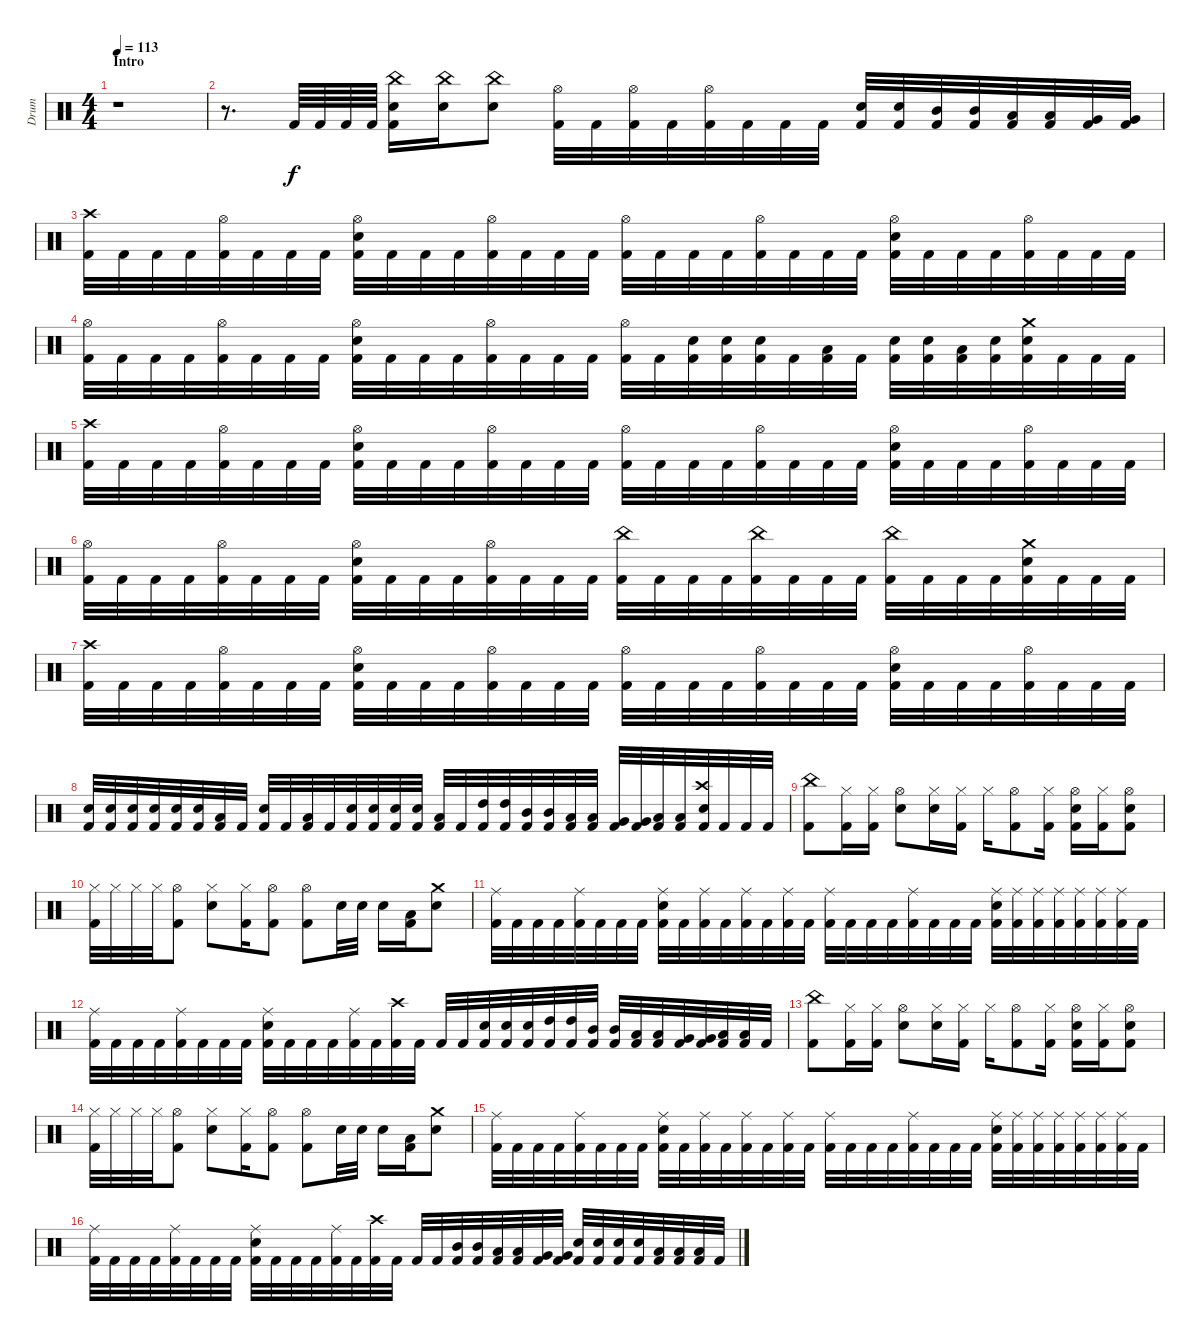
\track ("Drum" "Drum") {instrument percussion}
\staff {score}
\articulation defaults
\ts (4 4)
\section ("" "Intro")
\tempo 113
\clef neutral
\ks c
r.1{dy f} |
r.8{d} "Kick (hit) 2".64 "Kick (hit) 2".64 "Kick (hit) 2".64 "Kick (hit) 2".64 ("China (hit)" "Electric Snare (hit)" "Kick (hit) 2").16 ("China (hit)" "Electric Snare (hit)").16 ("China (hit)" "Electric Snare (hit)").8 ("Hi-Hat (open)" "Kick (hit) 2").32 "Kick (hit) 2".32 ("Hi-Hat (open)" "Kick (hit) 2").32 "Kick (hit) 2".32 ("Hi-Hat (open)" "Kick (hit) 2").32 "Kick (hit) 2".32 "Kick (hit) 2".32 "Kick (hit) 2".32 ("Electric Snare (hit)" "Kick (hit) 2").32 ("Electric Snare (hit)" "Kick (hit) 2").32 ("Mid Tom (hit)" "Kick (hit) 2").32 ("Mid Tom (hit)" "Kick (hit) 2").32 ("Low Tom (hit)" "Kick (hit) 2").32 ("Low Tom (hit)" "Kick (hit) 2").32 ("Very Low Tom (hit)" "Kick (hit) 2").32 ("Very Low Tom (hit)" "Kick (hit) 2").32 |
("Crash high (hit)" "Kick (hit) 2").32 "Kick (hit) 2".32 "Kick (hit) 2".32 "Kick (hit) 2".32 ("Hi-Hat (open)" "Kick (hit) 2").32 "Kick (hit) 2".32 "Kick (hit) 2".32 "Kick (hit) 2".32 ("Hi-Hat (open)" "Electric Snare (hit)" "Kick (hit) 2").32 "Kick (hit) 2".32 "Kick (hit) 2".32 "Kick (hit) 2".32 ("Hi-Hat (open)" "Kick (hit) 2").32 "Kick (hit) 2".32 "Kick (hit) 2".32 "Kick (hit) 2".32 ("Hi-Hat (open)" "Kick (hit) 2").32 "Kick (hit) 2".32 "Kick (hit) 2".32 "Kick (hit) 2".32 ("Hi-Hat (open)" "Kick (hit) 2").32 "Kick (hit) 2".32 "Kick (hit) 2".32 "Kick (hit) 2".32 ("Hi-Hat (open)" "Electric Snare (hit)" "Kick (hit) 2").32 "Kick (hit) 2".32 "Kick (hit) 2".32 "Kick (hit) 2".32 ("Hi-Hat (open)" "Kick (hit) 2").32 "Kick (hit) 2".32 "Kick (hit) 2".32 "Kick (hit) 2".32 |
("Hi-Hat (open)" "Kick (hit) 2").32 "Kick (hit) 2".32 "Kick (hit) 2".32 "Kick (hit) 2".32 ("Hi-Hat (open)" "Kick (hit) 2").32 "Kick (hit) 2".32 "Kick (hit) 2".32 "Kick (hit) 2".32 ("Hi-Hat (open)" "Electric Snare (hit)" "Kick (hit) 2").32 "Kick (hit) 2".32 "Kick (hit) 2".32 "Kick (hit) 2".32 ("Hi-Hat (open)" "Kick (hit) 2").32 "Kick (hit) 2".32 "Kick (hit) 2".32 "Kick (hit) 2".32 ("Hi-Hat (open)" "Kick (hit) 2").32 "Kick (hit) 2".32 ("Electric Snare (hit)" "Kick (hit) 2").32 ("Electric Snare (hit)" "Kick (hit) 2").32 ("Electric Snare (hit)" "Kick (hit) 2").32 "Kick (hit) 2".32 ("Low Tom (hit)" "Kick (hit) 2").32 "Kick (hit) 2".32 ("Electric Snare (hit)" "Kick (hit) 2").32 ("Electric Snare (hit)" "Kick (hit) 2").32 ("Low Tom (hit)" "Kick (hit) 2").32 ("Electric Snare (hit)" "Kick (hit) 2").32 ("Crash medium (hit)" "Electric Snare (hit)" "Kick (hit) 2").32 "Kick (hit) 2".32 "Kick (hit) 2".32 "Kick (hit) 2".32 |
("Crash high (hit)" "Kick (hit) 2").32 "Kick (hit) 2".32 "Kick (hit) 2".32 "Kick (hit) 2".32 ("Hi-Hat (open)" "Kick (hit) 2").32 "Kick (hit) 2".32 "Kick (hit) 2".32 "Kick (hit) 2".32 ("Hi-Hat (open)" "Electric Snare (hit)" "Kick (hit) 2").32 "Kick (hit) 2".32 "Kick (hit) 2".32 "Kick (hit) 2".32 ("Hi-Hat (open)" "Kick (hit) 2").32 "Kick (hit) 2".32 "Kick (hit) 2".32 "Kick (hit) 2".32 ("Hi-Hat (open)" "Kick (hit) 2").32 "Kick (hit) 2".32 "Kick (hit) 2".32 "Kick (hit) 2".32 ("Hi-Hat (open)" "Kick (hit) 2").32 "Kick (hit) 2".32 "Kick (hit) 2".32 "Kick (hit) 2".32 ("Hi-Hat (open)" "Electric Snare (hit)" "Kick (hit) 2").32 "Kick (hit) 2".32 "Kick (hit) 2".32 "Kick (hit) 2".32 ("Hi-Hat (open)" "Kick (hit) 2").32 "Kick (hit) 2".32 "Kick (hit) 2".32 "Kick (hit) 2".32 |
("Hi-Hat (open)" "Kick (hit) 2").32 "Kick (hit) 2".32 "Kick (hit) 2".32 "Kick (hit) 2".32 ("Hi-Hat (open)" "Kick (hit) 2").32 "Kick (hit) 2".32 "Kick (hit) 2".32 "Kick (hit) 2".32 ("Hi-Hat (open)" "Electric Snare (hit)" "Kick (hit) 2").32 "Kick (hit) 2".32 "Kick (hit) 2".32 "Kick (hit) 2".32 ("Hi-Hat (open)" "Kick (hit) 2").32 "Kick (hit) 2".32 "Kick (hit) 2".32 "Kick (hit) 2".32 ("China (hit)" "Kick (hit) 2").32 "Kick (hit) 2".32 "Kick (hit) 2".32 "Kick (hit) 2".32 ("China (hit)" "Kick (hit) 2").32 "Kick (hit) 2".32 "Kick (hit) 2".32 "Kick (hit) 2".32 ("China (hit)" "Kick (hit) 2").32 "Kick (hit) 2".32 "Kick (hit) 2".32 "Kick (hit) 2".32 ("Crash medium (hit)" "Electric Snare (hit)" "Kick (hit) 2").32 "Kick (hit) 2".32 "Kick (hit) 2".32 "Kick (hit) 2".32 |
("Crash high (hit)" "Kick (hit) 2").32 "Kick (hit) 2".32 "Kick (hit) 2".32 "Kick (hit) 2".32 ("Hi-Hat (open)" "Kick (hit) 2").32 "Kick (hit) 2".32 "Kick (hit) 2".32 "Kick (hit) 2".32 ("Hi-Hat (open)" "Electric Snare (hit)" "Kick (hit) 2").32 "Kick (hit) 2".32 "Kick (hit) 2".32 "Kick (hit) 2".32 ("Hi-Hat (open)" "Kick (hit) 2").32 "Kick (hit) 2".32 "Kick (hit) 2".32 "Kick (hit) 2".32 ("Hi-Hat (open)" "Kick (hit) 2").32 "Kick (hit) 2".32 "Kick (hit) 2".32 "Kick (hit) 2".32 ("Hi-Hat (open)" "Kick (hit) 2").32 "Kick (hit) 2".32 "Kick (hit) 2".32 "Kick (hit) 2".32 ("Hi-Hat (open)" "Electric Snare (hit)" "Kick (hit) 2").32 "Kick (hit) 2".32 "Kick (hit) 2".32 "Kick (hit) 2".32 ("Hi-Hat (open)" "Kick (hit) 2").32 "Kick (hit) 2".32 "Kick (hit) 2".32 "Kick (hit) 2".32 |
("Electric Snare (hit)" "Kick (hit) 2").32 ("Electric Snare (hit)" "Kick (hit) 2").32 ("Electric Snare (hit)" "Kick (hit) 2").32 ("Electric Snare (hit)" "Kick (hit) 2").32 ("Electric Snare (hit)" "Kick (hit) 2").32 ("Electric Snare (hit)" "Kick (hit) 2").32 ("Low Tom (hit)" "Kick (hit) 2").32 "Kick (hit) 2".32 ("Electric Snare (hit)" "Kick (hit) 2").32 "Kick (hit) 2".32 ("Low Tom (hit)" "Kick (hit) 2").32 "Kick (hit) 2".32 ("Electric Snare (hit)" "Kick (hit) 2").32 ("Electric Snare (hit)" "Kick (hit) 2").32 ("Electric Snare (hit)" "Kick (hit) 2").32 ("Electric Snare (hit)" "Kick (hit) 2").32 ("Low Tom (hit)" "Kick (hit) 2").32 "Kick (hit) 2".32 ("High Tom (hit)" "Kick (hit) 2").32 ("High Tom (hit)" "Kick (hit) 2").32 ("Mid Tom (hit)" "Kick (hit) 2").32 ("Mid Tom (hit)" "Kick (hit) 2").32 ("Low Tom (hit)" "Kick (hit) 2").32 ("Low Tom (hit)" "Kick (hit) 2").32 ("Very Low Tom (hit)" "Kick (hit) 2").32 ("Very Low Tom (hit)" "Kick (hit) 2").32 ("Low Floor Tom (hit)" "Kick (hit) 2").32 ("Low Floor Tom (hit)" "Kick (hit) 2").32 ("Crash high (hit)" "Snare (hit) 2" "Kick (hit) 2").32 "Kick (hit) 2".32 "Kick (hit) 2".32 "Kick (hit) 2".32 |
("China (hit)" "Kick (hit) 2").8 ("Hi-Hat (closed)" "Kick (hit) 2").16 ("Hi-Hat (closed)" "Kick (hit) 2").16 ("Hi-Hat (open)" "Electric Snare (hit)").8 ("Hi-Hat (closed)" "Electric Snare (hit)").16 ("Hi-Hat (closed)" "Kick (hit) 2").16 "Hi-Hat (closed)".16 ("Hi-Hat (open)" "Kick (hit) 2").8 ("Hi-Hat (closed)" "Kick (hit) 2").16 ("Hi-Hat (open)" "Electric Snare (hit)" "Kick (hit) 2").16 ("Hi-Hat (closed)" "Kick (hit) 2").16 ("Hi-Hat (open)" "Electric Snare (hit)" "Kick (hit) 2").8 |
("Hi-Hat (closed)" "Kick (hit) 2").32 "Hi-Hat (closed)".32 "Hi-Hat (closed)".32 "Hi-Hat (closed)".32 ("Hi-Hat (open)" "Kick (hit) 2").8 ("Hi-Hat (closed)" "Electric Snare (hit)").8 ("Hi-Hat (closed)" "Kick (hit) 2").16 ("Hi-Hat (open)" "Kick (hit) 2").8 ("Hi-Hat (open)" "Kick (hit) 2").8 "Electric Snare (hit)".32 "Electric Snare (hit)".32 "Electric Snare (hit)".16 ("Low Tom (hit)" "Kick (hit) 2").16 ("Crash medium (hit)" "Electric Snare (hit)").8 |
("Ride (middle)" "Kick (hit) 2").32 "Kick (hit) 2".32 "Kick (hit) 2".32 "Kick (hit) 2".32 ("Ride (middle)" "Kick (hit) 2").32 "Kick (hit) 2".32 "Kick (hit) 2".32 "Kick (hit) 2".32 ("Ride (middle)" "Electric Snare (hit)" "Kick (hit) 2").32 "Kick (hit) 2".32 ("Ride (middle)" "Kick (hit) 2").32 "Kick (hit) 2".32 ("Ride (middle)" "Kick (hit) 2").32 "Kick (hit) 2".32 ("Ride (middle)" "Kick (hit) 2").32 "Kick (hit) 2".32 ("Ride (middle)" "Kick (hit) 2").32 "Kick (hit) 2".32 "Kick (hit) 2".32 "Kick (hit) 2".32 ("Ride (middle)" "Kick (hit) 2").32 "Kick (hit) 2".32 "Kick (hit) 2".32 "Kick (hit) 2".32 ("Ride (middle)" "Electric Snare (hit)" "Kick (hit) 2").32 ("Ride (middle)" "Kick (hit) 2").32 ("Ride (middle)" "Kick (hit) 2").32 ("Ride (middle)" "Kick (hit) 2").32 ("Ride (middle)" "Kick (hit) 2").32 ("Ride (middle)" "Kick (hit) 2").32 ("Ride (middle)" "Kick (hit) 2").32 "Kick (hit) 2".32 |
("Ride (middle)" "Kick (hit) 2").32 "Kick (hit) 2".32 "Kick (hit) 2".32 "Kick (hit) 2".32 ("Ride (middle)" "Kick (hit) 2").32 "Kick (hit) 2".32 "Kick (hit) 2".32 "Kick (hit) 2".32 ("Ride (middle)" "Electric Snare (hit)" "Kick (hit) 2").32 "Kick (hit) 2".32 "Kick (hit) 2".32 "Kick (hit) 2".32 ("Ride (middle)" "Kick (hit) 2").32 "Kick (hit) 2".32 ("Crash high (hit)" "Kick (hit) 2").32 "Kick (hit) 2".32 "Kick (hit) 2".32 "Kick (hit) 2".32 ("Electric Snare (hit)" "Kick (hit) 2").32 ("Electric Snare (hit)" "Kick (hit) 2").32 ("Electric Snare (hit)" "Kick (hit) 2").32 ("High Tom (hit)" "Kick (hit) 2").32 ("High Tom (hit)" "Kick (hit) 2").32 ("Mid Tom (hit)" "Kick (hit) 2").32 ("Mid Tom (hit)" "Kick (hit) 2").32 ("Low Tom (hit)" "Kick (hit) 2").32 ("Low Tom (hit)" "Kick (hit) 2").32 ("Very Low Tom (hit)" "Kick (hit) 2").32 ("Very Low Tom (hit)" "Kick (hit) 2").32 ("Low Floor Tom (hit)" "Kick (hit) 2").32 ("Low Floor Tom (hit)" "Kick (hit) 2").32 "Kick (hit) 2".32 |
("China (hit)" "Kick (hit) 2").8 ("Hi-Hat (closed)" "Kick (hit) 2").16 ("Hi-Hat (closed)" "Kick (hit) 2").16 ("Hi-Hat (open)" "Electric Snare (hit)").8 ("Hi-Hat (closed)" "Electric Snare (hit)").16 ("Hi-Hat (closed)" "Kick (hit) 2").16 "Hi-Hat (closed)".16 ("Hi-Hat (open)" "Kick (hit) 2").8 ("Hi-Hat (closed)" "Kick (hit) 2").16 ("Hi-Hat (open)" "Electric Snare (hit)" "Kick (hit) 2").16 ("Hi-Hat (closed)" "Kick (hit) 2").16 ("Hi-Hat (open)" "Electric Snare (hit)" "Kick (hit) 2").8 |
("Hi-Hat (closed)" "Kick (hit) 2").32 "Hi-Hat (closed)".32 "Hi-Hat (closed)".32 "Hi-Hat (closed)".32 ("Hi-Hat (open)" "Kick (hit) 2").8 ("Hi-Hat (closed)" "Electric Snare (hit)").8 ("Hi-Hat (closed)" "Kick (hit) 2").16 ("Hi-Hat (open)" "Kick (hit) 2").8 ("Hi-Hat (open)" "Kick (hit) 2").8 "Electric Snare (hit)".32 "Electric Snare (hit)".32 "Electric Snare (hit)".16 ("Low Tom (hit)" "Kick (hit) 2").16 ("Crash medium (hit)" "Electric Snare (hit)").8 |
("Ride (middle)" "Kick (hit) 2").32 "Kick (hit) 2".32 "Kick (hit) 2".32 "Kick (hit) 2".32 ("Ride (middle)" "Kick (hit) 2").32 "Kick (hit) 2".32 "Kick (hit) 2".32 "Kick (hit) 2".32 ("Ride (middle)" "Electric Snare (hit)" "Kick (hit) 2").32 "Kick (hit) 2".32 ("Ride (middle)" "Kick (hit) 2").32 "Kick (hit) 2".32 ("Ride (middle)" "Kick (hit) 2").32 "Kick (hit) 2".32 ("Ride (middle)" "Kick (hit) 2").32 "Kick (hit) 2".32 ("Ride (middle)" "Kick (hit) 2").32 "Kick (hit) 2".32 "Kick (hit) 2".32 "Kick (hit) 2".32 ("Ride (middle)" "Kick (hit) 2").32 "Kick (hit) 2".32 "Kick (hit) 2".32 "Kick (hit) 2".32 ("Ride (middle)" "Electric Snare (hit)" "Kick (hit) 2").32 ("Ride (middle)" "Kick (hit) 2").32 ("Ride (middle)" "Kick (hit) 2").32 ("Ride (middle)" "Kick (hit) 2").32 ("Ride (middle)" "Kick (hit) 2").32 ("Ride (middle)" "Kick (hit) 2").32 ("Ride (middle)" "Kick (hit) 2").32 "Kick (hit) 2".32 |
("Ride (middle)" "Kick (hit) 2").32 "Kick (hit) 2".32 "Kick (hit) 2".32 "Kick (hit) 2".32 ("Ride (middle)" "Kick (hit) 2").32 "Kick (hit) 2".32 "Kick (hit) 2".32 "Kick (hit) 2".32 ("Ride (middle)" "Electric Snare (hit)" "Kick (hit) 2").32 "Kick (hit) 2".32 "Kick (hit) 2".32 "Kick (hit) 2".32 ("Ride (middle)" "Kick (hit) 2").32 "Kick (hit) 2".32 ("Crash high (hit)" "Kick (hit) 2").32 "Kick (hit) 2".32 "Kick (hit) 2".32 "Kick (hit) 2".32 ("Mid Tom (hit)" "Kick (hit) 2").32 ("Mid Tom (hit)" "Kick (hit) 2").32 ("Low Tom (hit)" "Kick (hit) 2").32 ("Low Tom (hit)" "Kick (hit) 2").32 ("Very Low Tom (hit)" "Kick (hit) 2").32 ("Very Low Tom (hit)" "Kick (hit) 2").32 ("Electric Snare (hit)" "Kick (hit) 2").32 ("Electric Snare (hit)" "Kick (hit) 2").32 ("Electric Snare (hit)" "Kick (hit) 2").32 ("Electric Snare (hit)" "Kick (hit) 2").32 ("Low Floor Tom (hit)" "Kick (hit) 2").32 ("Low Floor Tom (hit)" "Kick (hit) 2").32 ("Low Floor Tom (hit)" "Kick (hit) 2").32 "Kick (hit) 2".32
